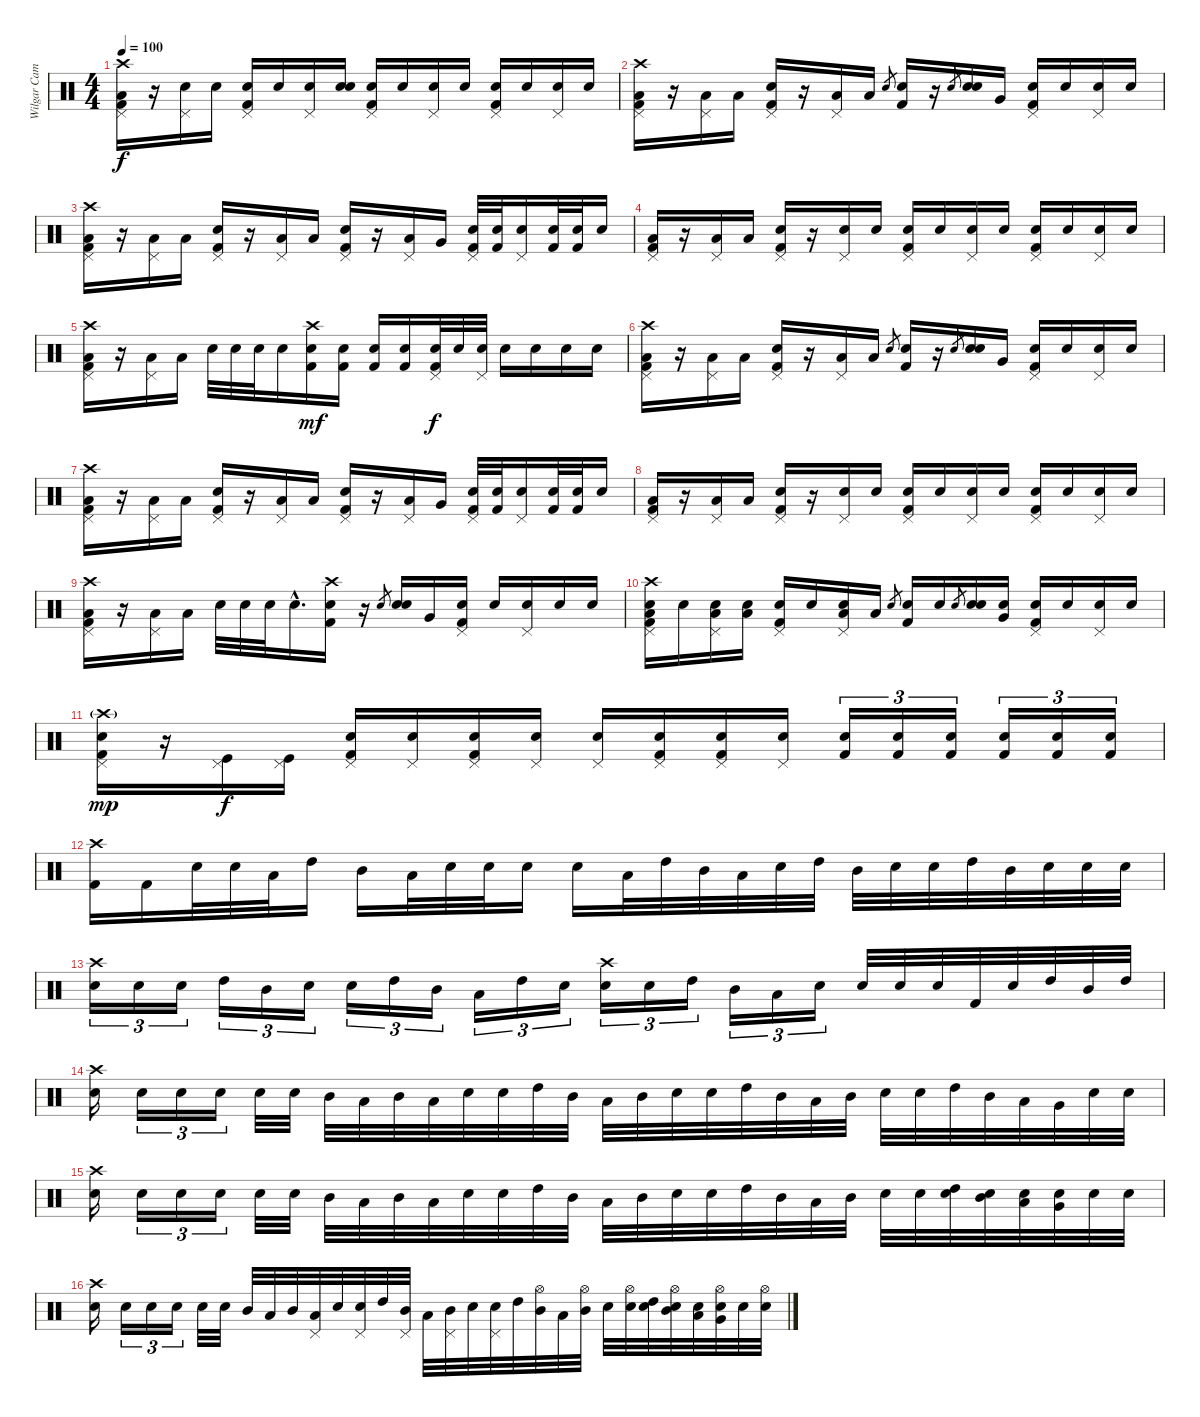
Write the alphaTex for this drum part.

\track ("Wilgar Campbell" "Wilgar Cam") {instrument percussion}
\staff {score}
\articulation defaults
\ts (4 4)
\tempo 100
\clef neutral
\ks c
("Crash high (hit)" "Low Tom (hit)" "Pedal Hi-Hat (hit)" "Kick (hit) 2").16{dy f} r.16 ("Electric Snare (hit)" "Pedal Hi-Hat (hit)").16 "Electric Snare (hit)".16 ("Electric Snare (hit)" "Pedal Hi-Hat (hit)" "Kick (hit) 2").16 "Electric Snare (hit)".16 ("Electric Snare (hit)" "Pedal Hi-Hat (hit)").16 ("Electric Snare (hit)" "Snare (hit) 2").16 ("Electric Snare (hit)" "Pedal Hi-Hat (hit)" "Kick (hit) 2").16 "Snare (hit) 2".16 ("Snare (hit) 2" "Pedal Hi-Hat (hit)").16 "Snare (hit) 2".16 ("Snare (hit) 2" "Pedal Hi-Hat (hit)" "Kick (hit) 2").16 "Electric Snare (hit)".16 ("Electric Snare (hit)" "Pedal Hi-Hat (hit)").16 "Electric Snare (hit)".16 |
("Crash high (hit)" "Low Tom (hit)" "Pedal Hi-Hat (hit)" "Kick (hit) 2").16 r.16 ("Low Tom (hit)" "Pedal Hi-Hat (hit)").16 "Low Tom (hit)".16 ("Snare (hit) 2" "Pedal Hi-Hat (hit)" "Kick (hit) 2").16 r.16 ("Low Tom (hit)" "Pedal Hi-Hat (hit)").16 "Low Tom (hit)".16 "Snare (hit) 2".8{gr} ("Snare (hit) 2" "Kick (hit) 2").16 r.16 "Snare (hit) 2".8{gr} ("Snare (hit) 2" "Snare (hit) 2").16 "Very Low Tom (hit)".16 ("Electric Snare (hit)" "Pedal Hi-Hat (hit)" "Kick (hit) 2").16 "Electric Snare (hit)".16 ("Electric Snare (hit)" "Pedal Hi-Hat (hit)").16 "Electric Snare (hit)".16 |
("Crash high (hit)" "Low Tom (hit)" "Pedal Hi-Hat (hit)" "Kick (hit) 2").16 r.16 ("Low Tom (hit)" "Pedal Hi-Hat (hit)").16 "Low Tom (hit)".16 ("Snare (hit) 2" "Pedal Hi-Hat (hit)" "Kick (hit) 2").16 r.16 ("Low Tom (hit)" "Pedal Hi-Hat (hit)").16 "Low Tom (hit)".16 ("Snare (hit) 2" "Pedal Hi-Hat (hit)" "Kick (hit) 2").16 r.16 ("Low Tom (hit)" "Pedal Hi-Hat (hit)").16 "Very Low Tom (hit)".16 ("Electric Snare (hit)" "Pedal Hi-Hat (hit)" "Kick (hit) 2").32 ("Electric Snare (hit)" "Kick (hit) 2").32 ("Electric Snare (hit)" "Pedal Hi-Hat (hit)").16 ("Electric Snare (hit)" "Kick (hit) 2").32 ("Electric Snare (hit)" "Kick (hit) 2").32 "Electric Snare (hit)".16 |
("Low Tom (hit)" "Pedal Hi-Hat (hit)" "Kick (hit) 2").16 r.16 ("Low Tom (hit)" "Pedal Hi-Hat (hit)").16 "Low Tom (hit)".16 ("Snare (hit) 2" "Pedal Hi-Hat (hit)" "Kick (hit) 2").16 r.16 ("Snare (hit) 2" "Pedal Hi-Hat (hit)").16 "Snare (hit) 2".16 ("Electric Snare (hit)" "Pedal Hi-Hat (hit)" "Kick (hit) 2").16 "Snare (hit) 2".16 ("Snare (hit) 2" "Pedal Hi-Hat (hit)").16 "Snare (hit) 2".16 ("Snare (hit) 2" "Pedal Hi-Hat (hit)" "Kick (hit) 2").16 "Electric Snare (hit)".16 ("Electric Snare (hit)" "Pedal Hi-Hat (hit)").16 "Electric Snare (hit)".16 |
("Crash high (hit)" "Low Tom (hit)" "Pedal Hi-Hat (hit)" "Kick (hit) 2").16 r.16 ("Low Tom (hit)" "Pedal Hi-Hat (hit)").16 "Low Tom (hit)".16 "Snare (hit) 2".32 "Snare (hit) 2".32 "Snare (hit) 2".32 "Electric Snare (hit)".16 ("Crash high (hit)" "Snare (hit) 2" "Kick (hit) 2").16{dy mf} ("Snare (hit) 2" "Kick (hit) 2").16 ("Snare (hit) 2" "Kick (hit) 2").16 ("Snare (hit) 2" "Kick (hit) 2").16 ("Electric Snare (hit)" "Pedal Hi-Hat (hit)" "Kick (hit) 2").32{dy f} "Electric Snare (hit)".32 ("Electric Snare (hit)" "Pedal Hi-Hat (hit)").32 "Electric Snare (hit)".16 "Electric Snare (hit)".16 "Electric Snare (hit)".16 "Electric Snare (hit)".16 |
("Crash high (hit)" "Low Tom (hit)" "Pedal Hi-Hat (hit)" "Kick (hit) 2").16 r.16 ("Low Tom (hit)" "Pedal Hi-Hat (hit)").16 "Low Tom (hit)".16 ("Snare (hit) 2" "Pedal Hi-Hat (hit)" "Kick (hit) 2").16 r.16 ("Low Tom (hit)" "Pedal Hi-Hat (hit)").16 "Low Tom (hit)".16 "Snare (hit) 2".8{gr} ("Snare (hit) 2" "Kick (hit) 2").16 r.16 "Snare (hit) 2".8{gr} ("Snare (hit) 2" "Snare (hit) 2").16 "Very Low Tom (hit)".16 ("Electric Snare (hit)" "Pedal Hi-Hat (hit)" "Kick (hit) 2").16 "Electric Snare (hit)".16 ("Electric Snare (hit)" "Pedal Hi-Hat (hit)").16 "Electric Snare (hit)".16 |
("Crash high (hit)" "Low Tom (hit)" "Pedal Hi-Hat (hit)" "Kick (hit) 2").16 r.16 ("Low Tom (hit)" "Pedal Hi-Hat (hit)").16 "Low Tom (hit)".16 ("Snare (hit) 2" "Pedal Hi-Hat (hit)" "Kick (hit) 2").16 r.16 ("Low Tom (hit)" "Pedal Hi-Hat (hit)").16 "Low Tom (hit)".16 ("Snare (hit) 2" "Pedal Hi-Hat (hit)" "Kick (hit) 2").16 r.16 ("Low Tom (hit)" "Pedal Hi-Hat (hit)").16 "Very Low Tom (hit)".16 ("Electric Snare (hit)" "Pedal Hi-Hat (hit)" "Kick (hit) 2").32 ("Electric Snare (hit)" "Kick (hit) 2").32 ("Electric Snare (hit)" "Pedal Hi-Hat (hit)").16 ("Electric Snare (hit)" "Kick (hit) 2").32 ("Electric Snare (hit)" "Kick (hit) 2").32 "Electric Snare (hit)".16 |
("Low Tom (hit)" "Pedal Hi-Hat (hit)" "Kick (hit) 2").16 r.16 ("Low Tom (hit)" "Pedal Hi-Hat (hit)").16 "Low Tom (hit)".16 ("Snare (hit) 2" "Pedal Hi-Hat (hit)" "Kick (hit) 2").16 r.16 ("Snare (hit) 2" "Pedal Hi-Hat (hit)").16 "Snare (hit) 2".16 ("Electric Snare (hit)" "Pedal Hi-Hat (hit)" "Kick (hit) 2").16 "Snare (hit) 2".16 ("Snare (hit) 2" "Pedal Hi-Hat (hit)").16 "Snare (hit) 2".16 ("Snare (hit) 2" "Pedal Hi-Hat (hit)" "Kick (hit) 2").16 "Electric Snare (hit)".16 ("Electric Snare (hit)" "Pedal Hi-Hat (hit)").16 "Electric Snare (hit)".16 |
("Crash high (hit)" "Low Tom (hit)" "Pedal Hi-Hat (hit)" "Kick (hit) 2").16 r.16 ("Low Tom (hit)" "Pedal Hi-Hat (hit)").16 "Low Tom (hit)".16 "Snare (hit) 2".32 "Snare (hit) 2".32 "Snare (hit) 2".32 "Electric Snare (hit)"{hac}.16{d} ("Crash high (hit)" "Snare (hit) 2" "Kick (hit) 2").16 r.16 "Snare (hit) 2".8{gr} ("Snare (hit) 2" "Snare (hit) 2").16 "Very Low Tom (hit)".16 ("Electric Snare (hit)" "Pedal Hi-Hat (hit)" "Kick (hit) 2").16 "Electric Snare (hit)".16 ("Electric Snare (hit)" "Pedal Hi-Hat (hit)").16 "Electric Snare (hit)".16 "Electric Snare (hit)".16 |
("Crash high (hit)" "Electric Snare (hit)" "Low Tom (hit)" "Pedal Hi-Hat (hit)" "Kick (hit) 2").16 "Electric Snare (hit)".16 ("Electric Snare (hit)" "Low Tom (hit)" "Pedal Hi-Hat (hit)").16 ("Electric Snare (hit)" "Low Tom (hit)").16 ("Electric Snare (hit)" "Pedal Hi-Hat (hit)" "Kick (hit) 2").16 "Electric Snare (hit)".16 ("Electric Snare (hit)" "Low Tom (hit)" "Pedal Hi-Hat (hit)").16 "Low Tom (hit)".16 "Snare (hit) 2".8{gr} ("Snare (hit) 2" "Kick (hit) 2").16 "Electric Snare (hit)".16 "Snare (hit) 2".8{gr} ("Snare (hit) 2" "Snare (hit) 2").16 ("Electric Snare (hit)" "Very Low Tom (hit)").16 ("Electric Snare (hit)" "Pedal Hi-Hat (hit)" "Kick (hit) 2").16 "Electric Snare (hit)".16 ("Electric Snare (hit)" "Pedal Hi-Hat (hit)").16 "Electric Snare (hit)".16 |
("Crash high (hit)"{g} "Snare (hit) 2" "Pedal Hi-Hat (hit)" "Kick (hit) 2").16{dy mp} r.16 ("Pedal Hi-Hat (hit)" "Kick (hit)").16{dy f} ("Pedal Hi-Hat (hit)" "Kick (hit)").16 ("Snare (hit) 2" "Pedal Hi-Hat (hit)" "Kick (hit) 2").16 ("Electric Snare (hit)" "Pedal Hi-Hat (hit)").16 ("Electric Snare (hit)" "Pedal Hi-Hat (hit)" "Kick (hit) 2").16 ("Electric Snare (hit)" "Pedal Hi-Hat (hit)").16 ("Electric Snare (hit)" "Pedal Hi-Hat (hit)").16 ("Electric Snare (hit)" "Pedal Hi-Hat (hit)" "Kick (hit) 2").16 ("Electric Snare (hit)" "Pedal Hi-Hat (hit)" "Kick (hit) 2").16 ("Electric Snare (hit)" "Pedal Hi-Hat (hit)").16 ("Snare (hit) 2" "Kick (hit) 2").16{tu (3 2)} ("Snare (hit) 2" "Kick (hit) 2").16{tu (3 2)} ("Snare (hit) 2" "Kick (hit) 2").16{tu (3 2)} ("Snare (hit) 2" "Kick (hit) 2").16{tu (3 2)} ("Snare (hit) 2" "Kick (hit) 2").16{tu (3 2)} ("Snare (hit) 2" "Kick (hit) 2").16{tu (3 2)} |
("Crash high (hit)" "Kick (hit) 2").16 "Kick (hit) 2".16 "Electric Snare (hit)".32 "Snare (hit) 2".32 "Low Tom (hit)".32 "High Tom (hit)".16 "Mid Tom (hit)".16 "Low Tom (hit)".32 "Electric Snare (hit)".32 "Electric Snare (hit)".32 "Electric Snare (hit)".16 "Snare (hit) 2".16 "Low Tom (hit)".32 "High Tom (hit)".32 "Mid Tom (hit)".32 "Low Tom (hit)".32 "Electric Snare (hit)".32 "High Tom (hit)".32 "Mid Tom (hit)".32 "Snare (hit) 2".32 "Electric Snare (hit)".32 "High Tom (hit)".32 "Mid Tom (hit)".32 "Snare (hit) 2".32 "Snare (hit) 2".32 "Snare (hit) 2".32 |
("Crash high (hit)" "Snare (hit) 2").16{tu (3 2)} "Snare (hit) 2".16{tu (3 2)} "Electric Snare (hit)".16{tu (3 2)} "High Tom (hit)".16{tu (3 2)} "Mid Tom (hit)".16{tu (3 2)} "Electric Snare (hit)".16{tu (3 2)} "Snare (hit) 2".16{tu (3 2)} "High Tom (hit)".16{tu (3 2)} "Mid Tom (hit)".16{tu (3 2)} "Low Tom (hit)".16{tu (3 2)} "High Tom (hit)".16{tu (3 2)} "Snare (hit) 2".16{tu (3 2)} ("Crash high (hit)" "Electric Snare (hit)").16{tu (3 2)} "Snare (hit) 2".16{tu (3 2)} "High Tom (hit)".16{tu (3 2)} "Mid Tom (hit)".16{tu (3 2)} "Low Tom (hit)".16{tu (3 2)} "Electric Snare (hit)".16{tu (3 2)} "Snare (hit) 2".32 "Snare (hit) 2".32 "Snare (hit) 2".32 "Kick (hit) 2".32 "Electric Snare (hit)".32 "High Tom (hit)".32 "Mid Tom (hit)".32 "High Tom (hit)".32 |
("Crash high (hit)" "Snare (hit) 2").16 "Electric Snare (hit)".16{tu (3 2)} "Electric Snare (hit)".16{tu (3 2)} "Electric Snare (hit)".16{tu (3 2)} "Snare (hit) 2".32 "Electric Snare (hit)".32 "Mid Tom (hit)".32 "Low Tom (hit)".32 "Mid Tom (hit)".32 "Low Tom (hit)".32 "Electric Snare (hit)".32 "Snare (hit) 2".32 "High Tom (hit)".32 "Mid Tom (hit)".32 "Low Tom (hit)".32 "Mid Tom (hit)".32 "Electric Snare (hit)".32 "Snare (hit) 2".32 "High Tom (hit)".32 "Mid Tom (hit)".32 "Low Tom (hit)".32 "Mid Tom (hit)".32 "Electric Snare (hit)".32 "Snare (hit) 2".32 "High Tom (hit)".32 "Mid Tom (hit)".32 "Low Tom (hit)".32 "Very Low Tom (hit)".32 "Electric Snare (hit)".32 "Snare (hit) 2".32 |
("Crash high (hit)" "Snare (hit) 2").16 "Electric Snare (hit)".16{tu (3 2)} "Electric Snare (hit)".16{tu (3 2)} "Electric Snare (hit)".16{tu (3 2)} "Snare (hit) 2".32 "Electric Snare (hit)".32 "Mid Tom (hit)".32 "Low Tom (hit)".32 "Mid Tom (hit)".32 "Low Tom (hit)".32 "Electric Snare (hit)".32 "Snare (hit) 2".32 "High Tom (hit)".32 "Mid Tom (hit)".32 "Low Tom (hit)".32 "Mid Tom (hit)".32 "Electric Snare (hit)".32 "Snare (hit) 2".32 "High Tom (hit)".32 "Mid Tom (hit)".32 "Low Tom (hit)".32 "Mid Tom (hit)".32 "Electric Snare (hit)".32 "Electric Snare (hit)".32 ("Electric Snare (hit)" "High Tom (hit)").32 ("Electric Snare (hit)" "Mid Tom (hit)").32 ("Electric Snare (hit)" "Low Tom (hit)").32 ("Electric Snare (hit)" "Very Low Tom (hit)").32 "Electric Snare (hit)".32 "Electric Snare (hit)".32 |
("Crash high (hit)" "Snare (hit) 2").16 "Electric Snare (hit)".16{tu (3 2)} "Electric Snare (hit)".16{tu (3 2)} "Electric Snare (hit)".16{tu (3 2)} "Snare (hit) 2".32 "Electric Snare (hit)".32 "Mid Tom (hit)".32 "Low Tom (hit)".32 "Mid Tom (hit)".32 ("Pedal Hi-Hat (hit)" "Low Tom (hit)").32 "Electric Snare (hit)".32 ("Pedal Hi-Hat (hit)" "Snare (hit) 2").32 "High Tom (hit)".32 ("Pedal Hi-Hat (hit)" "Mid Tom (hit)").32 "Low Tom (hit)".32 ("Pedal Hi-Hat (hit)" "Mid Tom (hit)").32 "Electric Snare (hit)".32 ("Pedal Hi-Hat (hit)" "Snare (hit) 2").32 "High Tom (hit)".32 ("Hi-Hat (open)" "Mid Tom (hit)").32 "Low Tom (hit)".32 ("Hi-Hat (open)" "Mid Tom (hit)").32 "Electric Snare (hit)".32 ("Hi-Hat (open)" "Electric Snare (hit)").32 ("Electric Snare (hit)" "High Tom (hit)").32 ("Hi-Hat (open)" "Electric Snare (hit)" "Mid Tom (hit)").32 ("Electric Snare (hit)" "Low Tom (hit)").32 ("Hi-Hat (open)" "Electric Snare (hit)" "Very Low Tom (hit)").32 "Electric Snare (hit)".32 ("Hi-Hat (open)" "Electric Snare (hit)").32
